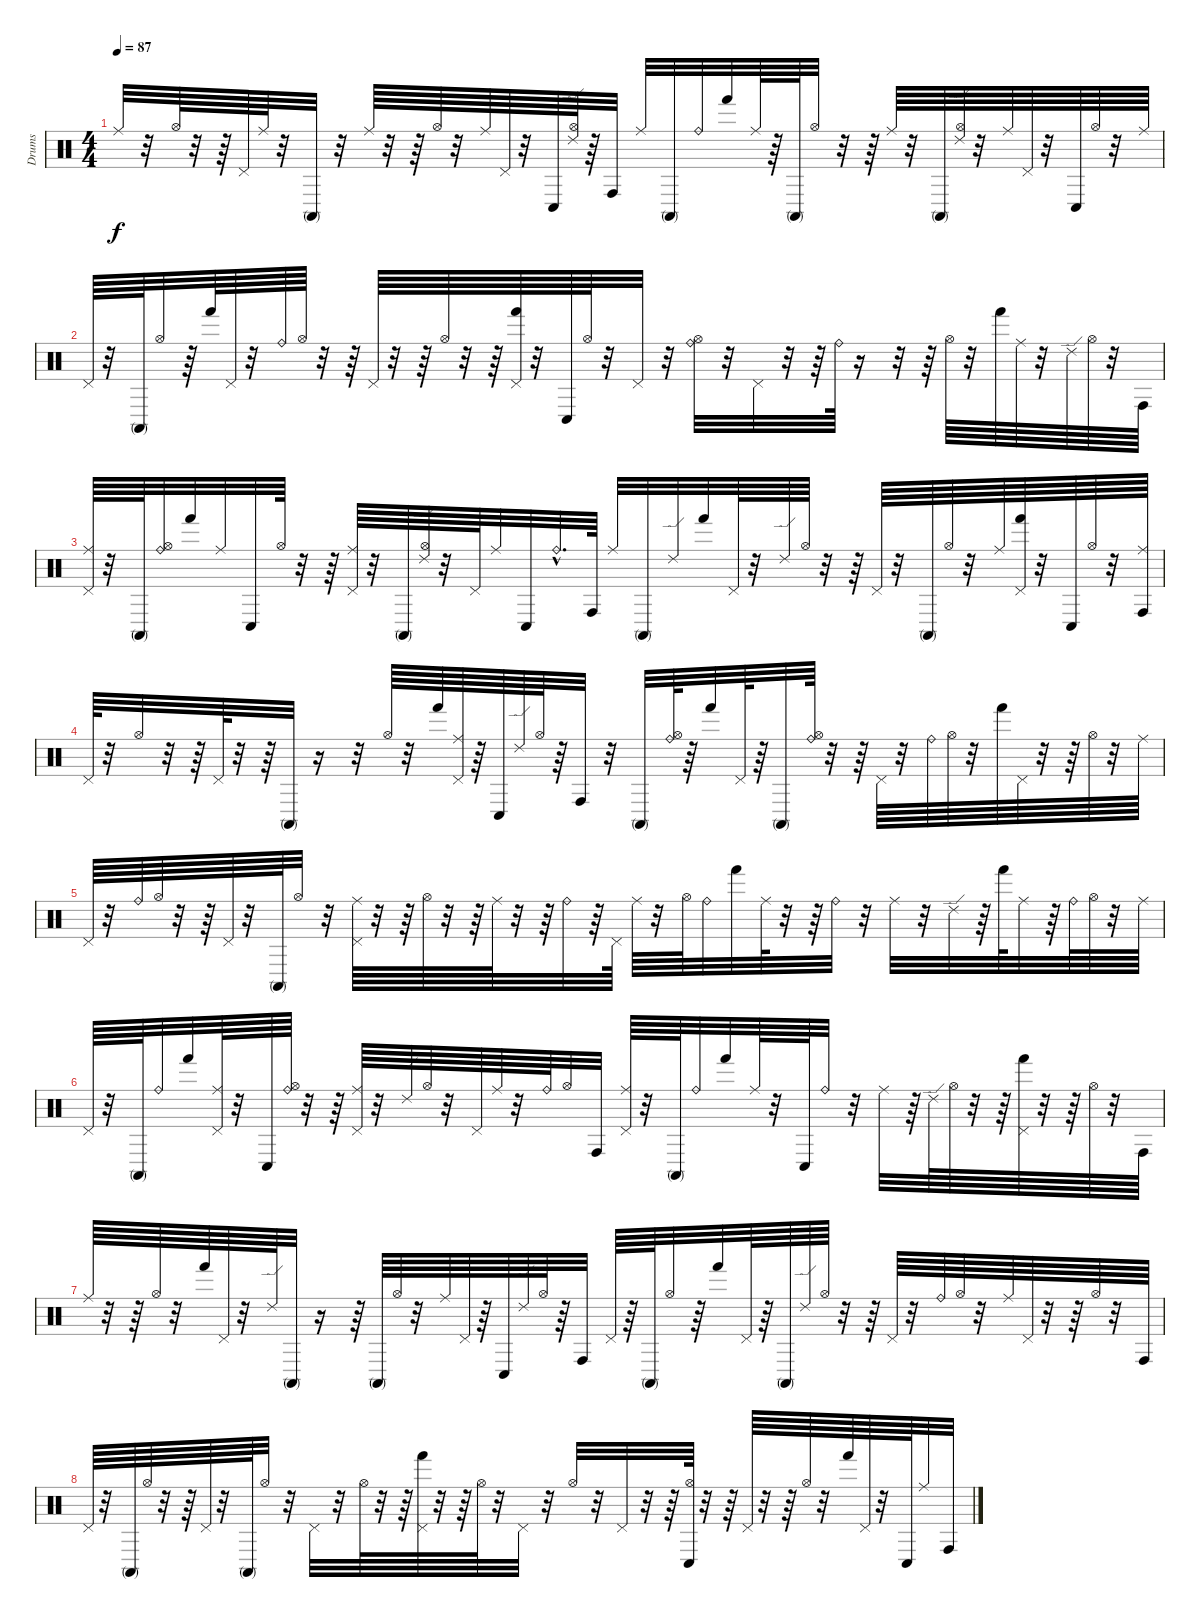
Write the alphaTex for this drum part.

\track ("Drums" "Drums") {instrument percussion}
\staff {score}
\articulation defaults
\ts (4 4)
\tempo 87
\clef neutral
\ks c "Ride (middle)".32{dy f}
r.32 "Hi-Hat (open)".64 r.32 r.64 "Pedal Hi-Hat (hit)".64 "Ride (middle)".64 r.32 "Conga high (mute)".32 r.32 "Ride (middle)".64 r.32 r.64 "Hi-Hat (open)".64 r.32 "Ride (middle)".64 "Pedal Hi-Hat (hit)".64 r.32 "Conga low (hit)".64 ("Hi-Hat (open)" "Ride (edge) 2").64 r.64 "Conga high (hit)".32 "Ride (middle)".32 "Conga high (mute)".32 "Ride (bell)".32 "Hand (hit)".32 "Ride (middle)".64 r.64 "Conga high (mute)".64 "Hi-Hat (open)".32 r.32 r.64 "Ride (middle)".64 r.32 "Conga high (mute)".64 ("Hi-Hat (open)" "Ride (edge) 2").64 r.32 "Ride (middle)".64 "Pedal Hi-Hat (hit)".64 r.32 "Conga low (hit)".64 "Hi-Hat (open)".64 r.32 "Ride (middle)".64 |
"Pedal Hi-Hat (hit)".64 r.32 "Conga high (mute)".64 "Hi-Hat (open)".32 r.64 "Hand (hit)".64 "Pedal Hi-Hat (hit)".64 r.32 "Ride (bell)".64 "Hi-Hat (open)".64 r.32 r.64 "Pedal Hi-Hat (hit)".64 r.32 r.64 "Hi-Hat (open)".64 r.32 r.64 ("Hand (hit)" "Pedal Hi-Hat (hit)").64 r.32 "Conga low (hit)".64 "Hi-Hat (open)".64 r.32 "Pedal Hi-Hat (hit)".32 r.32 ("Hi-Hat (open)" "Ride (bell)").32 r.32 "Pedal Hi-Hat (hit)".32 r.32 r.64 "Ride (bell)".64 r.16 r.32 r.64 "Hi-Hat (open)".64 r.32 "Hand (hit)".64 "Ride (middle)".64 r.32 "Ride (edge) 2".64 "Hi-Hat (open)".64 r.32 "Conga high (hit)".64 |
("Pedal Hi-Hat (hit)" "Ride (middle)").64 r.32 "Conga high (mute)".64 ("Hi-Hat (open)" "Ride (bell)").32 "Hand (hit)".32 "Ride (middle)".32 "Conga low (hit)".32 "Hi-Hat (open)".64 r.32 r.64 ("Pedal Hi-Hat (hit)" "Ride (middle)").64 r.32 "Conga high (mute)".64 ("Hi-Hat (open)" "Ride (edge) 2").64 r.32 "Pedal Hi-Hat (hit)".64 "Ride (middle)".32 "Conga low (hit)".32 "Ride (bell)"{hac}.32{d} "Conga high (hit)".64 "Ride (middle)".32 "Conga high (mute)".32 "Ride (edge) 2".32 "Hand (hit)".32 "Pedal Hi-Hat (hit)".64 r.32 "Ride (edge) 2".64 "Hi-Hat (open)".64 r.32 r.64 "Pedal Hi-Hat (hit)".64 r.32 "Conga high (mute)".64 "Hi-Hat (open)".64 r.32 "Ride (middle)".64 ("Hand (hit)" "Pedal Hi-Hat (hit)").64 r.32 "Conga low (hit)".64 "Hi-Hat (open)".64 r.32 ("Conga high (hit)" "Ride (middle)").64 |
"Pedal Hi-Hat (hit)".64 r.32 "Hi-Hat (open)".32 r.32 r.64 "Pedal Hi-Hat (hit)".64 r.32 r.64 "Conga high (mute)".32 r.16 r.32 "Hi-Hat (open)".64 r.32 "Hand (hit)".64 ("Pedal Hi-Hat (hit)" "Ride (middle)").64 r.64 "Conga low (hit)".64 "Ride (edge) 2".64 "Hi-Hat (open)".64 r.64 "Conga high (hit)".32 r.32 "Conga high (mute)".32 ("Hi-Hat (open)" "Ride (bell)").64 r.64 "Hand (hit)".32 "Pedal Hi-Hat (hit)".64 r.64 "Conga high (mute)".32 ("Hi-Hat (open)" "Ride (bell)").64 r.32 r.64 "Pedal Hi-Hat (hit)".64 r.32 "Ride (bell)".64 "Hi-Hat (open)".64 r.32 "Hand (hit)".64 "Pedal Hi-Hat (hit)".64 r.32 r.64 "Hi-Hat (open)".64 r.32 "Ride (middle)".64 |
"Pedal Hi-Hat (hit)".64 r.32 "Ride (bell)".64 "Hi-Hat (open)".64 r.32 r.64 "Pedal Hi-Hat (hit)".64 r.32 "Conga high (mute)".64 "Hi-Hat (open)".32 r.32 ("Pedal Hi-Hat (hit)" "Ride (middle)").64 r.32 r.64 "Hi-Hat (open)".64 r.32 r.64 "Ride (middle)".64 r.32 r.64 "Ride (bell)".32 r.64 "Pedal Hi-Hat (hit)".64 "Ride (middle)".64 r.32 "Hi-Hat (open)".64 "Ride (bell)".32 "Hand (hit)".32 "Ride (middle)".64 r.32 r.64 "Ride (bell)".32 r.32 "Ride (middle)".32 r.32 "Ride (edge) 2".32 r.64 "Hand (hit)".64 "Ride (middle)".32 r.64 "Ride (bell)".64 "Hi-Hat (open)".64 r.32 "Ride (middle)".64 |
"Pedal Hi-Hat (hit)".64 r.32 "Conga high (mute)".64 "Ride (bell)".32 "Hand (hit)".32 ("Pedal Hi-Hat (hit)" "Ride (middle)").64 r.32 "Conga low (hit)".64 ("Hi-Hat (open)" "Ride (bell)").64 r.32 r.64 ("Pedal Hi-Hat (hit)" "Ride (middle)").64 r.32 "Ride (edge) 2".64 "Hi-Hat (open)".64 r.32 "Pedal Hi-Hat (hit)".64 "Ride (middle)".64 r.32 "Ride (bell)".64 "Hi-Hat (open)".32 "Conga high (hit)".32 ("Pedal Hi-Hat (hit)" "Ride (middle)").64 r.32 "Conga high (mute)".64 "Ride (bell)".32 "Hand (hit)".32 "Ride (middle)".64 r.32 "Conga low (hit)".64 "Ride (bell)".32 r.32 "Ride (middle)".32 r.64 "Ride (edge) 2".64 "Hi-Hat (open)".64 r.32 r.64 ("Hand (hit)" "Pedal Hi-Hat (hit)").64 r.32 r.64 "Hi-Hat (open)".64 r.32 "Conga high (hit)".64 |
"Ride (middle)".64 r.32 r.64 "Hi-Hat (open)".64 r.32 "Hand (hit)".64 "Pedal Hi-Hat (hit)".64 r.32 "Ride (edge) 2".64 "Conga high (mute)".32 r.16 r.64 "Conga high (mute)".64 "Hi-Hat (open)".64 r.32 "Ride (middle)".64 "Pedal Hi-Hat (hit)".64 r.64 "Conga low (hit)".64 "Ride (edge) 2".64 "Hi-Hat (open)".64 r.64 "Conga high (hit)".32 "Pedal Hi-Hat (hit)".64 r.64 "Conga high (mute)".64 "Hi-Hat (open)".32 r.64 "Hand (hit)".32 "Pedal Hi-Hat (hit)".64 r.64 "Conga high (mute)".64 "Ride (edge) 2".64 "Hi-Hat (open)".64 r.32 r.64 "Pedal Hi-Hat (hit)".64 r.32 "Ride (bell)".64 "Hi-Hat (open)".64 r.32 "Ride (middle)".64 "Pedal Hi-Hat (hit)".64 r.32 r.64 "Hi-Hat (open)".64 r.32 "Conga high (hit)".64 |
"Pedal Hi-Hat (hit)".64 r.32 "Conga high (mute)".64 "Hi-Hat (open)".64 r.32 r.64 "Pedal Hi-Hat (hit)".64 r.32 "Conga high (mute)".64 "Hi-Hat (open)".32 r.32 "Pedal Hi-Hat (hit)".32 r.32 "Hi-Hat (open)".64 r.32 r.64 ("Hand (hit)" "Pedal Hi-Hat (hit)").64 r.32 r.64 "Hi-Hat (open)".64 r.32 "Pedal Hi-Hat (hit)".32 r.32 "Hi-Hat (open)".32 r.32 "Pedal Hi-Hat (hit)".32 r.32 r.64 ("Conga low (hit)" "Hi-Hat (open)").64 r.32 r.64 "Pedal Hi-Hat (hit)".64 r.32 r.64 "Hi-Hat (open)".64 r.32 "Hand (hit)".64 "Pedal Hi-Hat (hit)".64 r.32 "Conga low (hit)".64 "Ride (middle)".32 "Conga high (hit)".32
